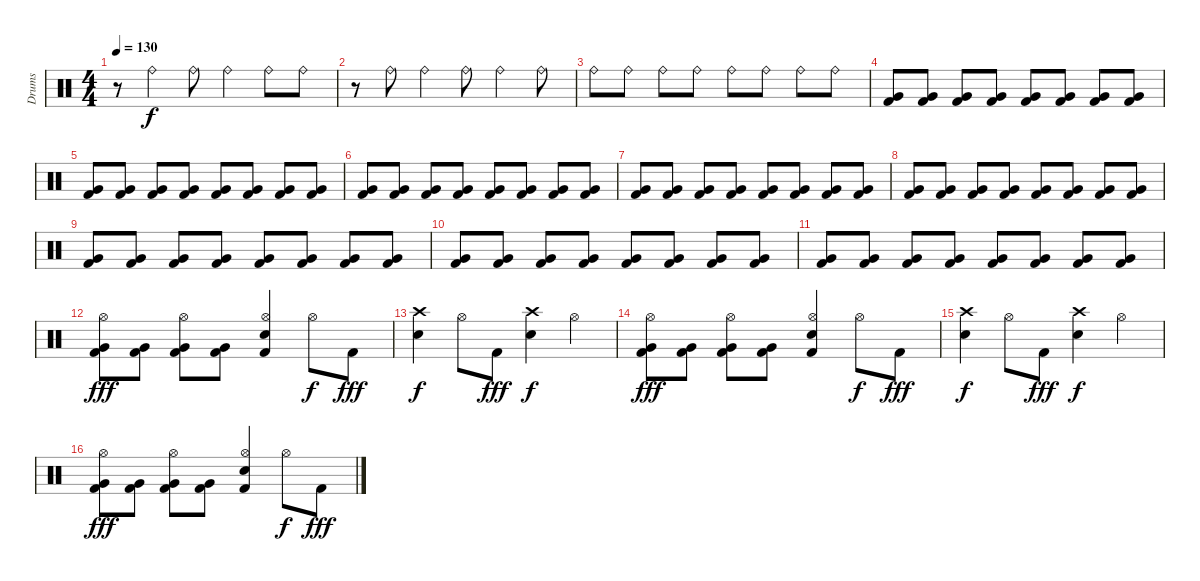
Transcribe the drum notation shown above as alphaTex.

\track ("Drums" "Drums") {instrument percussion}
\staff {score}
\articulation defaults
\ts (4 4)
\tempo 130
\clef neutral
\ks c
r.8{dy f} "Ride (bell)".4 "Ride (bell)".8 "Ride (bell)".4 "Ride (bell)".8 "Ride (bell)".8 |
r.8 "Ride (bell)".8 "Ride (bell)".4 "Ride (bell)".8 "Ride (bell)".4 "Ride (bell)".8 |
"Ride (bell)".8{volume 4} "Ride (bell)".8 "Ride (bell)".8 "Ride (bell)".8 "Ride (bell)".8 "Ride (bell)".8 "Ride (bell)".8 "Ride (bell)".8 |
("Very Low Tom (hit)" "Kick (hit) 2").8{volume 7} ("Very Low Tom (hit)" "Kick (hit) 2").8{volume 14} ("Very Low Tom (hit)" "Kick (hit) 2").8 ("Very Low Tom (hit)" "Kick (hit) 2").8 ("Very Low Tom (hit)" "Kick (hit) 2").8 ("Very Low Tom (hit)" "Kick (hit) 2").8 ("Very Low Tom (hit)" "Kick (hit) 2").8 ("Very Low Tom (hit)" "Kick (hit) 2").8 |
("Very Low Tom (hit)" "Kick (hit) 2").8 ("Very Low Tom (hit)" "Kick (hit) 2").8 ("Very Low Tom (hit)" "Kick (hit) 2").8 ("Very Low Tom (hit)" "Kick (hit) 2").8 ("Very Low Tom (hit)" "Kick (hit) 2").8 ("Very Low Tom (hit)" "Kick (hit) 2").8 ("Very Low Tom (hit)" "Kick (hit) 2").8 ("Very Low Tom (hit)" "Kick (hit) 2").8 |
("Very Low Tom (hit)" "Kick (hit) 2").8 ("Very Low Tom (hit)" "Kick (hit) 2").8 ("Very Low Tom (hit)" "Kick (hit) 2").8 ("Very Low Tom (hit)" "Kick (hit) 2").8 ("Very Low Tom (hit)" "Kick (hit) 2").8 ("Very Low Tom (hit)" "Kick (hit) 2").8 ("Very Low Tom (hit)" "Kick (hit) 2").8 ("Very Low Tom (hit)" "Kick (hit) 2").8 |
("Very Low Tom (hit)" "Kick (hit) 2").8 ("Very Low Tom (hit)" "Kick (hit) 2").8 ("Very Low Tom (hit)" "Kick (hit) 2").8 ("Very Low Tom (hit)" "Kick (hit) 2").8 ("Very Low Tom (hit)" "Kick (hit) 2").8 ("Very Low Tom (hit)" "Kick (hit) 2").8 ("Very Low Tom (hit)" "Kick (hit) 2").8 ("Very Low Tom (hit)" "Kick (hit) 2").8 |
("Very Low Tom (hit)" "Kick (hit) 2").8 ("Very Low Tom (hit)" "Kick (hit) 2").8 ("Very Low Tom (hit)" "Kick (hit) 2").8 ("Very Low Tom (hit)" "Kick (hit) 2").8 ("Very Low Tom (hit)" "Kick (hit) 2").8 ("Very Low Tom (hit)" "Kick (hit) 2").8 ("Very Low Tom (hit)" "Kick (hit) 2").8 ("Very Low Tom (hit)" "Kick (hit) 2").8 |
("Very Low Tom (hit)" "Kick (hit) 2").8 ("Very Low Tom (hit)" "Kick (hit) 2").8 ("Very Low Tom (hit)" "Kick (hit) 2").8 ("Very Low Tom (hit)" "Kick (hit) 2").8 ("Very Low Tom (hit)" "Kick (hit) 2").8 ("Very Low Tom (hit)" "Kick (hit) 2").8 ("Very Low Tom (hit)" "Kick (hit) 2").8 ("Very Low Tom (hit)" "Kick (hit) 2").8 |
("Very Low Tom (hit)" "Kick (hit) 2").8 ("Very Low Tom (hit)" "Kick (hit) 2").8 ("Very Low Tom (hit)" "Kick (hit) 2").8 ("Very Low Tom (hit)" "Kick (hit) 2").8 ("Very Low Tom (hit)" "Kick (hit) 2").8 ("Very Low Tom (hit)" "Kick (hit) 2").8 ("Very Low Tom (hit)" "Kick (hit) 2").8 ("Very Low Tom (hit)" "Kick (hit) 2").8 |
("Very Low Tom (hit)" "Kick (hit) 2").8 ("Very Low Tom (hit)" "Kick (hit) 2").8 ("Very Low Tom (hit)" "Kick (hit) 2").8 ("Very Low Tom (hit)" "Kick (hit) 2").8 ("Very Low Tom (hit)" "Kick (hit) 2").8 ("Very Low Tom (hit)" "Kick (hit) 2").8 ("Very Low Tom (hit)" "Kick (hit) 2").8 ("Very Low Tom (hit)" "Kick (hit) 2").8 |
("Hi-Hat (open)" "Very Low Tom (hit)" "Kick (hit) 2").8{dy fff} ("Very Low Tom (hit)" "Kick (hit) 2").8 ("Hi-Hat (open)" "Very Low Tom (hit)" "Kick (hit) 2").8 ("Very Low Tom (hit)" "Kick (hit) 2").8 ("Hi-Hat (open)" "Snare (hit) 2" "Kick (hit) 2").4 "Hi-Hat (open)".8{dy f} "Kick (hit) 2".8{dy fff} |
("Crash high (hit)" "Snare (hit) 2").4{dy f} "Hi-Hat (open)".8 "Kick (hit) 2".8{dy fff} ("Crash high (hit)" "Snare (hit) 2").4{dy f} "Hi-Hat (open)".4 |
("Hi-Hat (open)" "Very Low Tom (hit)" "Kick (hit) 2").8{dy fff} ("Very Low Tom (hit)" "Kick (hit) 2").8 ("Hi-Hat (open)" "Very Low Tom (hit)" "Kick (hit) 2").8 ("Very Low Tom (hit)" "Kick (hit) 2").8 ("Hi-Hat (open)" "Snare (hit) 2" "Kick (hit) 2").4 "Hi-Hat (open)".8{dy f} "Kick (hit) 2".8{dy fff} |
("Crash high (hit)" "Snare (hit) 2").4{dy f} "Hi-Hat (open)".8 "Kick (hit) 2".8{dy fff} ("Crash high (hit)" "Snare (hit) 2").4{dy f} "Hi-Hat (open)".4 |
("Hi-Hat (open)" "Very Low Tom (hit)" "Kick (hit) 2").8{dy fff} ("Very Low Tom (hit)" "Kick (hit) 2").8 ("Hi-Hat (open)" "Very Low Tom (hit)" "Kick (hit) 2").8 ("Very Low Tom (hit)" "Kick (hit) 2").8 ("Hi-Hat (open)" "Snare (hit) 2" "Kick (hit) 2").4 "Hi-Hat (open)".8{dy f} "Kick (hit) 2".8{dy fff}
